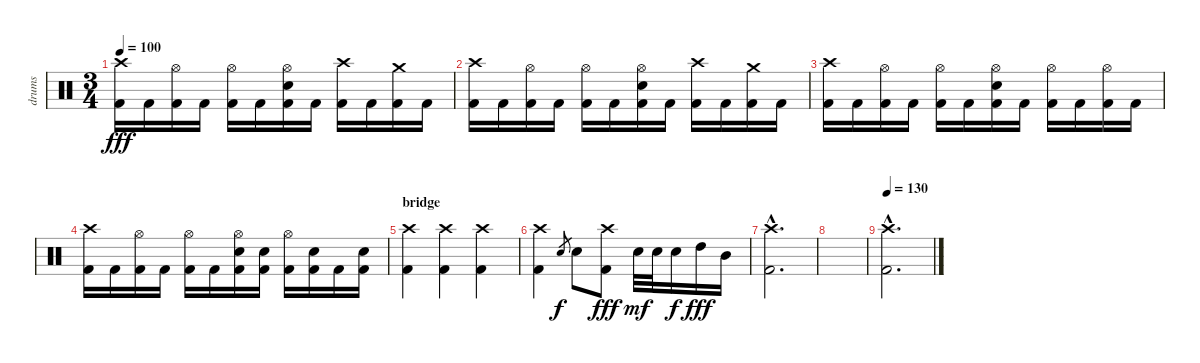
\track ("drums" "drums") {instrument percussion}
\staff {score}
\articulation defaults
\ts (3 4)
\tempo 100
\clef neutral
\ks c
("Crash high (hit)" "Kick (hit) 2").16{dy fff} "Kick (hit) 2".16 ("Hi-Hat (open)" "Kick (hit) 2").16 "Kick (hit) 2".16 ("Hi-Hat (open)" "Kick (hit) 2").16 "Kick (hit) 2".16 ("Hi-Hat (open)" "Snare (hit) 2" "Kick (hit) 2").16 "Kick (hit) 2".16 ("Crash high (hit)" "Kick (hit) 2").16 "Kick (hit) 2".16 ("Crash medium (hit)" "Kick (hit) 2").16 "Kick (hit) 2".16 |
("Crash high (hit)" "Kick (hit) 2").16 "Kick (hit) 2".16 ("Hi-Hat (open)" "Kick (hit) 2").16 "Kick (hit) 2".16 ("Hi-Hat (open)" "Kick (hit) 2").16 "Kick (hit) 2".16 ("Hi-Hat (open)" "Snare (hit) 2" "Kick (hit) 2").16 "Kick (hit) 2".16 ("Crash high (hit)" "Kick (hit) 2").16 "Kick (hit) 2".16 ("Crash medium (hit)" "Kick (hit) 2").16 "Kick (hit) 2".16 |
("Crash high (hit)" "Kick (hit) 2").16 "Kick (hit) 2".16 ("Hi-Hat (open)" "Kick (hit) 2").16 "Kick (hit) 2".16 ("Hi-Hat (open)" "Kick (hit) 2").16 "Kick (hit) 2".16 ("Hi-Hat (open)" "Snare (hit) 2" "Kick (hit) 2").16 "Kick (hit) 2".16 ("Hi-Hat (open)" "Kick (hit) 2").16 "Kick (hit) 2".16 ("Hi-Hat (open)" "Kick (hit) 2").16 "Kick (hit) 2".16 |
("Crash high (hit)" "Kick (hit) 2").16 "Kick (hit) 2".16 ("Hi-Hat (open)" "Kick (hit) 2").16 "Kick (hit) 2".16 ("Hi-Hat (open)" "Kick (hit) 2").16 "Kick (hit) 2".16 ("Hi-Hat (open)" "Snare (hit) 2" "Kick (hit) 2").16 ("Snare (hit) 2" "Kick (hit) 2").16 ("Hi-Hat (open)" "Kick (hit) 2").16 ("Snare (hit) 2" "Kick (hit) 2").16 "Kick (hit) 2".16 ("Snare (hit) 2" "Kick (hit) 2").16 |
\section ("" "bridge")
("Crash high (hit)" "Kick (hit) 2").4 ("Crash high (hit)" "Kick (hit) 2").4 ("Crash high (hit)" "Kick (hit) 2").4 |
("Crash high (hit)" "Kick (hit) 2").4 "Snare (hit) 2".8{gr dy f} "Snare (hit) 2".8 ("Crash high (hit)" "Kick (hit) 2").8{dy fff} "Snare (hit) 2".32{dy mf} "Snare (hit) 2".32 "Snare (hit) 2".16{dy f} "High Tom (hit)".16{dy fff} "Mid Tom (hit)".16 |
("Crash high (hit)"{hac} "Kick (hit) 2"{hac}).2{d} |
|
\tempo 130
("Crash high (hit)"{hac} "Kick (hit) 2"{hac}).2{d}
